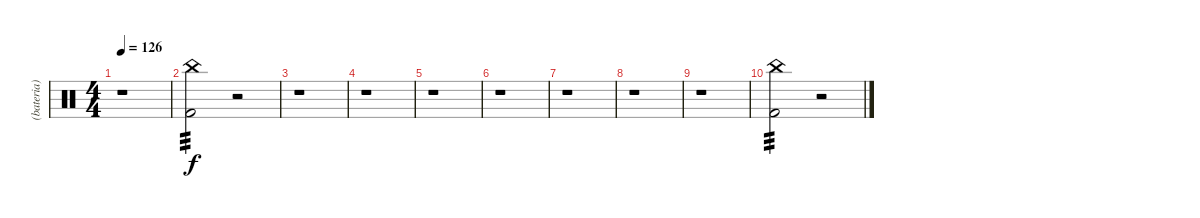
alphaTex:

\track ("(bateria)" "(bateria)") {instrument percussion}
\staff {score}
\articulation defaults
\ts (4 4)
\tempo 126
\clef neutral
\ks c
r.1{dy f} |
("Kick (hit) 2" "China (hit)").2{tp 3 volume 0} r.2{volume 13} |
r.1 |
r.1 |
r.1 |
r.1 |
r.1 |
r.1 |
r.1 |
("Kick (hit) 2" "China (hit)").2{tp 3 volume 0} r.2{volume 13}
